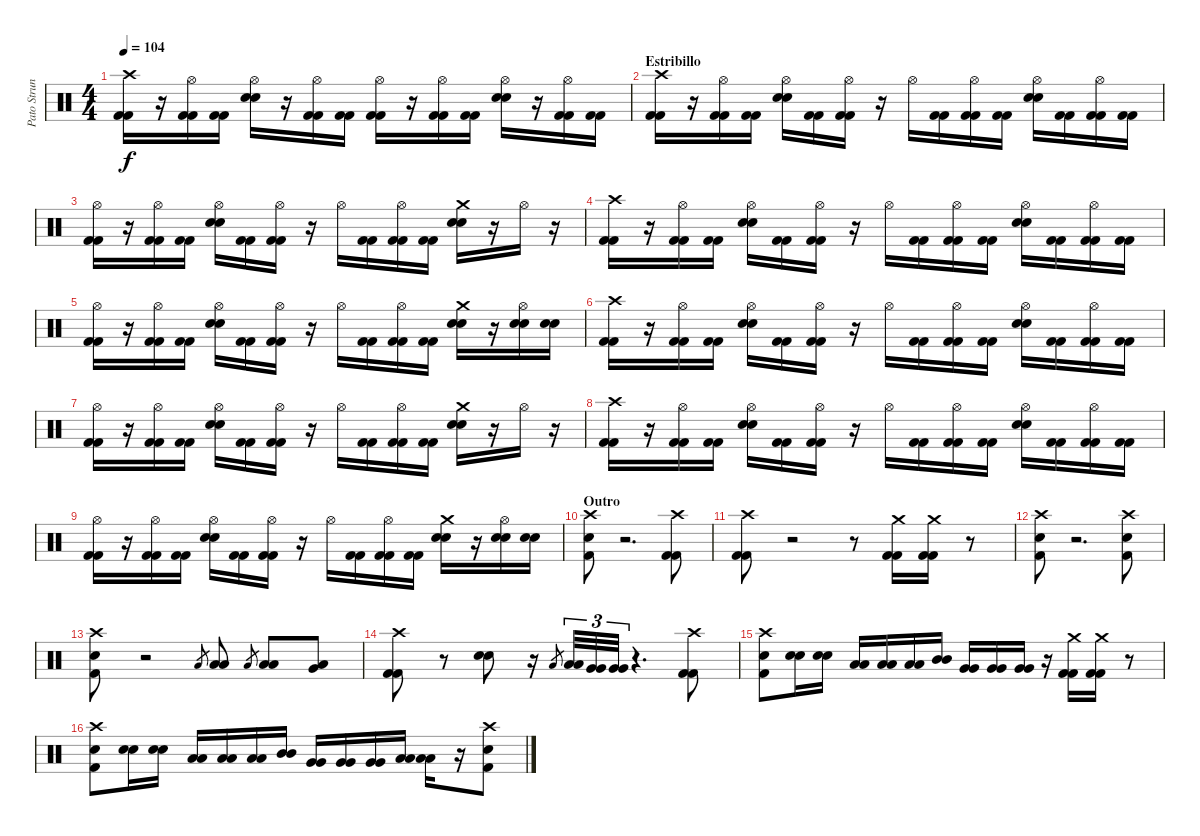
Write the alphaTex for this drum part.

\track ("Pato Strunz (Bateria)" "Pato Strun") {instrument percussion}
\staff {score}
\articulation defaults
\ts (4 4)
\tempo 104
\clef neutral
\ks c
("Crash high (hit)" "Kick (hit) 2" "Kick (hit) 2").16{dy f} r.16 ("Hi-Hat (open)" "Kick (hit) 2" "Kick (hit) 2").16 ("Kick (hit) 2" "Kick (hit) 2").16 ("Hi-Hat (open)" "Snare (hit) 2" "Snare (hit) 2").16 r.16 ("Hi-Hat (open)" "Kick (hit) 2" "Kick (hit) 2").16 ("Kick (hit) 2" "Kick (hit) 2").16 ("Hi-Hat (open)" "Kick (hit) 2" "Kick (hit) 2").16 r.16 ("Hi-Hat (open)" "Kick (hit) 2" "Kick (hit) 2").16 ("Kick (hit) 2" "Kick (hit) 2").16 ("Hi-Hat (open)" "Snare (hit) 2" "Snare (hit) 2").16 r.16 ("Hi-Hat (open)" "Kick (hit) 2" "Kick (hit) 2").16 ("Kick (hit) 2" "Kick (hit) 2").16 |
\section ("" "Estribillo")
("Crash high (hit)" "Kick (hit) 2" "Kick (hit) 2").16 r.16 ("Hi-Hat (open)" "Kick (hit) 2" "Kick (hit) 2").16 ("Kick (hit) 2" "Kick (hit) 2").16 ("Hi-Hat (open)" "Snare (hit) 2" "Snare (hit) 2").16 ("Kick (hit) 2" "Kick (hit) 2").16 ("Hi-Hat (open)" "Kick (hit) 2" "Kick (hit) 2").16 r.16 "Hi-Hat (open)".16 ("Kick (hit) 2" "Kick (hit) 2").16 ("Hi-Hat (open)" "Kick (hit) 2" "Kick (hit) 2").16 ("Kick (hit) 2" "Kick (hit) 2").16 ("Hi-Hat (open)" "Snare (hit) 2" "Snare (hit) 2").16 ("Kick (hit) 2" "Kick (hit) 2").16 ("Hi-Hat (open)" "Kick (hit) 2" "Kick (hit) 2").16 ("Kick (hit) 2" "Kick (hit) 2").16 |
("Hi-Hat (open)" "Kick (hit) 2" "Kick (hit) 2").16 r.16 ("Hi-Hat (open)" "Kick (hit) 2" "Kick (hit) 2").16 ("Kick (hit) 2" "Kick (hit) 2").16 ("Hi-Hat (open)" "Snare (hit) 2" "Snare (hit) 2").16 ("Kick (hit) 2" "Kick (hit) 2").16 ("Hi-Hat (open)" "Kick (hit) 2" "Kick (hit) 2").16 r.16 "Hi-Hat (open)".16 ("Kick (hit) 2" "Kick (hit) 2").16 ("Hi-Hat (open)" "Kick (hit) 2" "Kick (hit) 2").16 ("Kick (hit) 2" "Kick (hit) 2").16 ("Crash medium (hit)" "Snare (hit) 2" "Snare (hit) 2").16 r.16 "Hi-Hat (open)".16 r.16 |
("Crash high (hit)" "Kick (hit) 2" "Kick (hit) 2").16 r.16 ("Hi-Hat (open)" "Kick (hit) 2" "Kick (hit) 2").16 ("Kick (hit) 2" "Kick (hit) 2").16 ("Hi-Hat (open)" "Snare (hit) 2" "Snare (hit) 2").16 ("Kick (hit) 2" "Kick (hit) 2").16 ("Hi-Hat (open)" "Kick (hit) 2" "Kick (hit) 2").16 r.16 "Hi-Hat (open)".16 ("Kick (hit) 2" "Kick (hit) 2").16 ("Hi-Hat (open)" "Kick (hit) 2" "Kick (hit) 2").16 ("Kick (hit) 2" "Kick (hit) 2").16 ("Hi-Hat (open)" "Snare (hit) 2" "Snare (hit) 2").16 ("Kick (hit) 2" "Kick (hit) 2").16 ("Hi-Hat (open)" "Kick (hit) 2" "Kick (hit) 2").16 ("Kick (hit) 2" "Kick (hit) 2").16 |
("Hi-Hat (open)" "Kick (hit) 2" "Kick (hit) 2").16 r.16 ("Hi-Hat (open)" "Kick (hit) 2" "Kick (hit) 2").16 ("Kick (hit) 2" "Kick (hit) 2").16 ("Hi-Hat (open)" "Snare (hit) 2" "Snare (hit) 2").16 ("Kick (hit) 2" "Kick (hit) 2").16 ("Hi-Hat (open)" "Kick (hit) 2" "Kick (hit) 2").16 r.16 "Hi-Hat (open)".16 ("Kick (hit) 2" "Kick (hit) 2").16 ("Hi-Hat (open)" "Kick (hit) 2" "Kick (hit) 2").16 ("Kick (hit) 2" "Kick (hit) 2").16 ("Crash medium (hit)" "Snare (hit) 2" "Snare (hit) 2").16 r.16 ("Hi-Hat (open)" "Snare (hit) 2" "Snare (hit) 2").16 ("Snare (hit) 2" "Snare (hit) 2").16 |
("Crash high (hit)" "Kick (hit) 2" "Kick (hit) 2").16 r.16 ("Hi-Hat (open)" "Kick (hit) 2" "Kick (hit) 2").16 ("Kick (hit) 2" "Kick (hit) 2").16 ("Hi-Hat (open)" "Snare (hit) 2" "Snare (hit) 2").16 ("Kick (hit) 2" "Kick (hit) 2").16 ("Hi-Hat (open)" "Kick (hit) 2" "Kick (hit) 2").16 r.16 "Hi-Hat (open)".16 ("Kick (hit) 2" "Kick (hit) 2").16 ("Hi-Hat (open)" "Kick (hit) 2" "Kick (hit) 2").16 ("Kick (hit) 2" "Kick (hit) 2").16 ("Hi-Hat (open)" "Snare (hit) 2" "Snare (hit) 2").16 ("Kick (hit) 2" "Kick (hit) 2").16 ("Hi-Hat (open)" "Kick (hit) 2" "Kick (hit) 2").16 ("Kick (hit) 2" "Kick (hit) 2").16 |
("Hi-Hat (open)" "Kick (hit) 2" "Kick (hit) 2").16 r.16 ("Hi-Hat (open)" "Kick (hit) 2" "Kick (hit) 2").16 ("Kick (hit) 2" "Kick (hit) 2").16 ("Hi-Hat (open)" "Snare (hit) 2" "Snare (hit) 2").16 ("Kick (hit) 2" "Kick (hit) 2").16 ("Hi-Hat (open)" "Kick (hit) 2" "Kick (hit) 2").16 r.16 "Hi-Hat (open)".16 ("Kick (hit) 2" "Kick (hit) 2").16 ("Hi-Hat (open)" "Kick (hit) 2" "Kick (hit) 2").16 ("Kick (hit) 2" "Kick (hit) 2").16 ("Crash medium (hit)" "Snare (hit) 2" "Snare (hit) 2").16 r.16 "Hi-Hat (open)".16 r.16 |
("Crash high (hit)" "Kick (hit) 2" "Kick (hit) 2").16 r.16 ("Hi-Hat (open)" "Kick (hit) 2" "Kick (hit) 2").16 ("Kick (hit) 2" "Kick (hit) 2").16 ("Hi-Hat (open)" "Snare (hit) 2" "Snare (hit) 2").16 ("Kick (hit) 2" "Kick (hit) 2").16 ("Hi-Hat (open)" "Kick (hit) 2" "Kick (hit) 2").16 r.16 "Hi-Hat (open)".16 ("Kick (hit) 2" "Kick (hit) 2").16 ("Hi-Hat (open)" "Kick (hit) 2" "Kick (hit) 2").16 ("Kick (hit) 2" "Kick (hit) 2").16 ("Hi-Hat (open)" "Snare (hit) 2" "Snare (hit) 2").16 ("Kick (hit) 2" "Kick (hit) 2").16 ("Hi-Hat (open)" "Kick (hit) 2" "Kick (hit) 2").16 ("Kick (hit) 2" "Kick (hit) 2").16 |
("Hi-Hat (open)" "Kick (hit) 2" "Kick (hit) 2").16 r.16 ("Hi-Hat (open)" "Kick (hit) 2" "Kick (hit) 2").16 ("Kick (hit) 2" "Kick (hit) 2").16 ("Hi-Hat (open)" "Snare (hit) 2" "Snare (hit) 2").16 ("Kick (hit) 2" "Kick (hit) 2").16 ("Hi-Hat (open)" "Kick (hit) 2" "Kick (hit) 2").16 r.16 "Hi-Hat (open)".16 ("Kick (hit) 2" "Kick (hit) 2").16 ("Hi-Hat (open)" "Kick (hit) 2" "Kick (hit) 2").16 ("Kick (hit) 2" "Kick (hit) 2").16 ("Crash medium (hit)" "Snare (hit) 2" "Snare (hit) 2").16 r.16 ("Hi-Hat (open)" "Snare (hit) 2" "Snare (hit) 2").16 ("Snare (hit) 2" "Snare (hit) 2").16 |
\section ("" "Outro")
("Crash high (hit)" "Snare (hit) 2" "Kick (hit) 2").8 r.2{d} ("Crash high (hit)" "Kick (hit) 2" "Kick (hit) 2").8 |
("Crash high (hit)" "Kick (hit) 2" "Kick (hit) 2").8 r.2 r.8 ("Crash medium (hit)" "Kick (hit) 2" "Kick (hit) 2").16 ("Crash medium (hit)" "Kick (hit) 2" "Kick (hit) 2").16 r.8 |
("Crash high (hit)" "Snare (hit) 2" "Kick (hit) 2").8 r.2{d} ("Crash high (hit)" "Snare (hit) 2" "Kick (hit) 2").8 |
("Crash high (hit)" "Snare (hit) 2" "Kick (hit) 2").8 r.2 "Low Tom (hit)".8{gr} ("Low Tom (hit)" "Low Tom (hit)").8 "Low Tom (hit)".8{gr} ("Low Tom (hit)" "Low Tom (hit)").8 ("Very Low Tom (hit)" "Low Floor Tom (hit)").8 |
("Crash high (hit)" "Kick (hit) 2" "Kick (hit) 2").8 r.8 ("Snare (hit) 2" "Snare (hit) 2").8 r.16 "Low Tom (hit)".8{gr} ("Low Tom (hit)" "Low Tom (hit)").32{tu (3 2)} ("Very Low Tom (hit)" "Very Low Tom (hit)").32{tu (3 2)} ("Very Low Tom (hit)" "Very Low Tom (hit)").32{tu (3 2)} r.4{d} ("Crash high (hit)" "Kick (hit) 2" "Kick (hit) 2").8 |
("Crash high (hit)" "Snare (hit) 2" "Kick (hit) 2").8 ("Snare (hit) 2" "Snare (hit) 2").16 ("Snare (hit) 2" "Snare (hit) 2").16 ("Low Tom (hit)" "Low Tom (hit)").16 ("Low Tom (hit)" "Low Tom (hit)").16 ("Low Tom (hit)" "Low Tom (hit)").16 ("Mid Tom (hit)" "Mid Tom (hit)").16 ("Very Low Tom (hit)" "Very Low Tom (hit)").16 ("Very Low Tom (hit)" "Very Low Tom (hit)").16 ("Very Low Tom (hit)" "Very Low Tom (hit)").16 r.16 ("Crash medium (hit)" "Kick (hit) 2" "Kick (hit) 2").16 ("Crash medium (hit)" "Kick (hit) 2" "Kick (hit) 2").16 r.8 |
("Crash high (hit)" "Snare (hit) 2" "Kick (hit) 2").8 ("Snare (hit) 2" "Snare (hit) 2").16 ("Snare (hit) 2" "Snare (hit) 2").16 ("Low Tom (hit)" "Low Tom (hit)").16 ("Low Tom (hit)" "Low Tom (hit)").16 ("Low Tom (hit)" "Low Tom (hit)").16 ("Mid Tom (hit)" "Mid Tom (hit)").16 ("Very Low Tom (hit)" "Very Low Tom (hit)").16 ("Very Low Tom (hit)" "Very Low Tom (hit)").16 ("Very Low Tom (hit)" "Very Low Tom (hit)").16 ("Low Floor Tom (hit)" "Low Floor Tom (hit)").16 ("Low Floor Tom (hit)" "Low Floor Tom (hit)").16 r.16 ("Crash high (hit)" "Snare (hit) 2" "Kick (hit) 2").8
